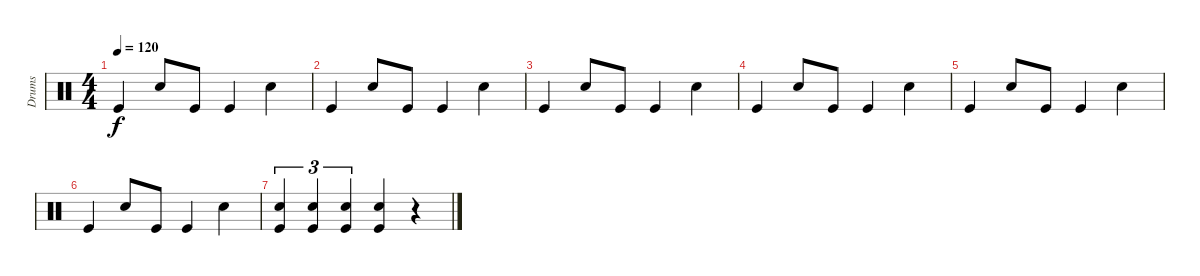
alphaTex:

\track ("Drums" "Drums") {instrument percussion}
\staff {score}
\articulation defaults
\ts (4 4)
\tempo 120
\clef neutral
\ks c "Kick (hit)".4{dy f} "Snare (hit) 2".8 "Kick (hit)".8 "Kick (hit)".4 "Snare (hit) 2".4
|
"Kick (hit)".4 "Snare (hit) 2".8 "Kick (hit)".8 "Kick (hit)".4 "Snare (hit) 2".4 |
"Kick (hit)".4 "Snare (hit) 2".8 "Kick (hit)".8 "Kick (hit)".4 "Snare (hit) 2".4 |
"Kick (hit)".4 "Snare (hit) 2".8 "Kick (hit)".8 "Kick (hit)".4 "Snare (hit) 2".4 |
"Kick (hit)".4 "Snare (hit) 2".8 "Kick (hit)".8 "Kick (hit)".4 "Snare (hit) 2".4 |
"Kick (hit)".4 "Snare (hit) 2".8 "Kick (hit)".8 "Kick (hit)".4 "Snare (hit) 2".4 |
("Snare (hit) 2" "Kick (hit)").4{tu (3 2)} ("Snare (hit) 2" "Kick (hit)").4{tu (3 2)} ("Snare (hit) 2" "Kick (hit)").4{tu (3 2)} ("Snare (hit) 2" "Kick (hit)").4 r.4
